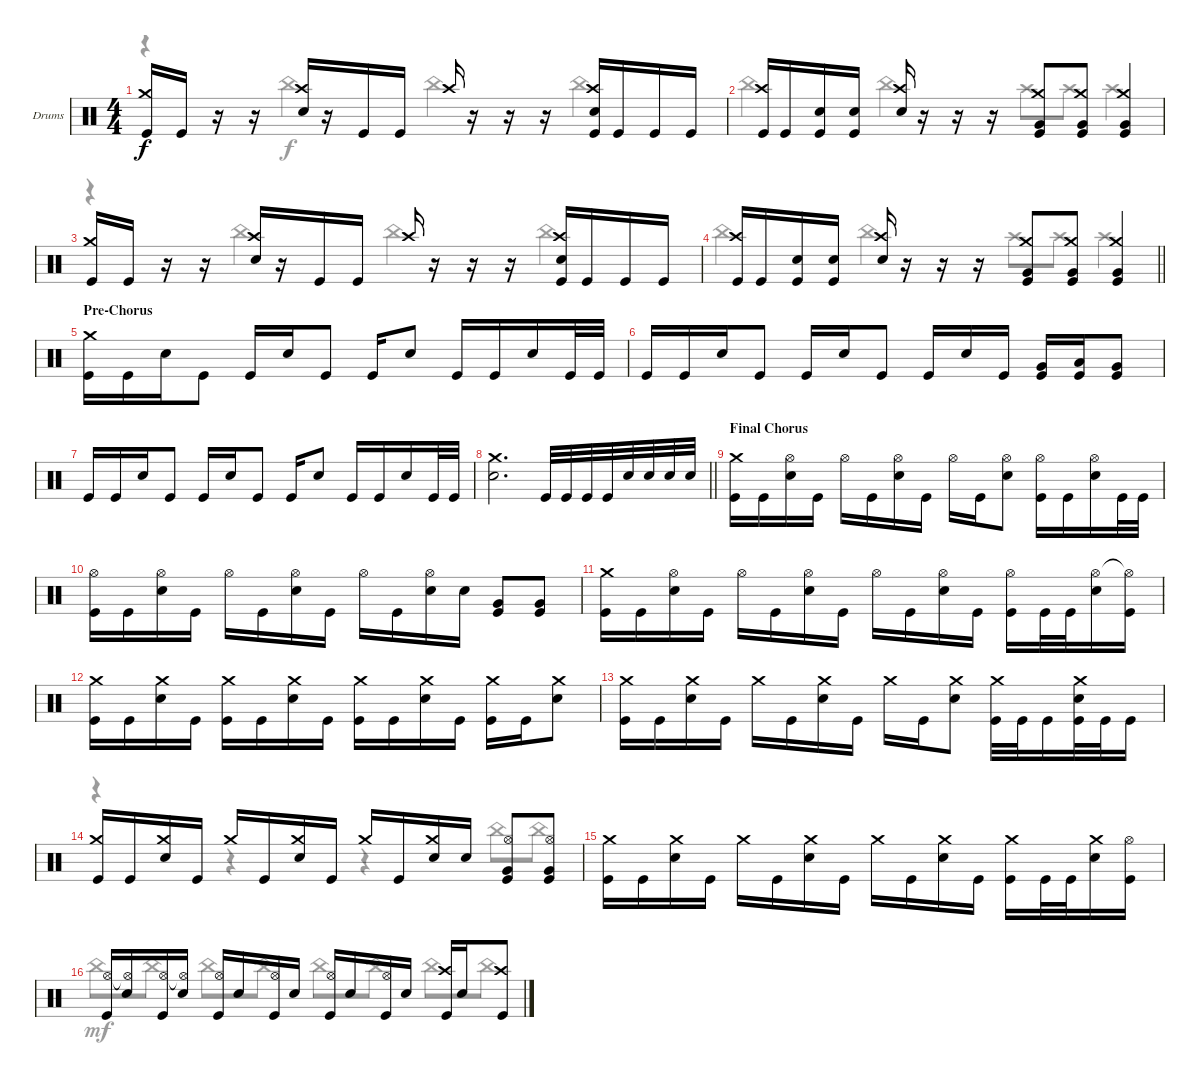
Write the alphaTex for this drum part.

\bracketExtendMode groupsimilarinstruments
\firstSystemTrackNameOrientation horizontal
\otherSystemsTrackNameOrientation horizontal
\track ("Drumkit" "Drums") {instrument percussion}
\staff {score}
\articulation defaults
\voice
\ts (4 4)
\tempo (94 hide)
\clef neutral
\ks c
("Crash medium (hit)" "Kick (hit)").16{dy f} "Kick (hit)".16 r.16 r.16 ("Crash high (hit)" "Snare (hit) 2").16 r.16 "Kick (hit)".16 "Kick (hit)".16 "Crash high (hit)".16 r.16 r.16 r.16 ("Crash high (hit)" "Snare (hit) 2" "Kick (hit)").16 "Kick (hit)".16 "Kick (hit)".16 "Kick (hit)".16 |
("Crash high (hit)" "Kick (hit)").16 "Kick (hit)".16 ("Snare (hit) 2" "Kick (hit)").16 ("Snare (hit) 2" "Kick (hit)").16 ("Crash high (hit)" "Snare (hit) 2").16 r.16 r.16 r.16 ("Crash medium (hit)" "Very Low Tom (hit)" "Kick (hit)").8 ("Crash medium (hit)" "Very Low Tom (hit)" "Kick (hit)").8 ("Crash medium (hit)" "Very Low Tom (hit)" "Kick (hit)").4 |
("Crash medium (hit)" "Kick (hit)").16 "Kick (hit)".16 r.16 r.16 ("Crash high (hit)" "Snare (hit) 2").16 r.16 "Kick (hit)".16 "Kick (hit)".16 "Crash high (hit)".16 r.16 r.16 r.16 ("Crash high (hit)" "Snare (hit) 2" "Kick (hit)").16 "Kick (hit)".16 "Kick (hit)".16 "Kick (hit)".16 |
\barLineRight lightlight
("Crash high (hit)" "Kick (hit)").16 "Kick (hit)".16 ("Snare (hit) 2" "Kick (hit)").16 ("Snare (hit) 2" "Kick (hit)").16 ("Crash high (hit)" "Snare (hit) 2").16 r.16 r.16 r.16 ("Crash medium (hit)" "Very Low Tom (hit)" "Kick (hit)").8 ("Crash medium (hit)" "Very Low Tom (hit)" "Kick (hit)").8 ("Crash medium (hit)" "Very Low Tom (hit)" "Kick (hit)").4 |
\section ("" "Pre-Chorus")
\tempo (94 hide)
("Crash medium (hit)" "Kick (hit)").16 "Kick (hit)".16 "Snare (hit) 2".16 "Kick (hit)".8 "Kick (hit)".16 "Snare (hit) 2".16 "Kick (hit)".8 "Kick (hit)".16 "Snare (hit) 2".8 "Kick (hit)".16 "Kick (hit)".16 "Snare (hit) 2".16 "Kick (hit)".32 "Kick (hit)".32 |
"Kick (hit)".16 "Kick (hit)".16 "Snare (hit) 2".16 "Kick (hit)".8 "Kick (hit)".16 "Snare (hit) 2".16 "Kick (hit)".8 "Kick (hit)".16 "Snare (hit) 2".16 "Kick (hit)".16 ("Very Low Tom (hit)" "Kick (hit)").16 ("Low Tom (hit)" "Kick (hit)").16 ("Very Low Tom (hit)" "Kick (hit)").8 |
"Kick (hit)".16 "Kick (hit)".16 "Snare (hit) 2".16 "Kick (hit)".8 "Kick (hit)".16 "Snare (hit) 2".16 "Kick (hit)".8 "Kick (hit)".16 "Snare (hit) 2".8 "Kick (hit)".16 "Kick (hit)".16 "Snare (hit) 2".16 "Kick (hit)".32 "Kick (hit)".32 |
\barLineRight lightlight
("Crash medium (hit)" "Snare (hit) 2").2{d} "Kick (hit)".32 "Kick (hit)".32 "Kick (hit)".32 "Kick (hit)".32 "Snare (hit) 2".32 "Snare (hit) 2".32 "Snare (hit) 2".32 "Snare (hit) 2".32 |
\section ("" "Final Chorus")
("Crash medium (hit)" "Kick (hit)").16 "Kick (hit)".16 ("Hi-Hat (open)" "Snare (hit) 2").16 "Kick (hit)".16 "Hi-Hat (open)".16 "Kick (hit)".16 ("Hi-Hat (open)" "Snare (hit) 2").16 "Kick (hit)".16 "Hi-Hat (open)".16 "Kick (hit)".16 ("Hi-Hat (open)" "Snare (hit) 2").8 ("Hi-Hat (open)" "Kick (hit)").16 "Kick (hit)".16 ("Hi-Hat (open)" "Snare (hit) 2").16 "Kick (hit)".32 "Kick (hit)".32 |
("Hi-Hat (open)" "Kick (hit)").16 "Kick (hit)".16 ("Hi-Hat (open)" "Snare (hit) 2").16 "Kick (hit)".16 "Hi-Hat (open)".16 "Kick (hit)".16 ("Hi-Hat (open)" "Snare (hit) 2").16 "Kick (hit)".16 "Hi-Hat (open)".16 "Kick (hit)".16 ("Hi-Hat (open)" "Snare (hit) 2").16 "Snare (hit) 2".16 ("Very Low Tom (hit)" "Kick (hit)").8 ("Very Low Tom (hit)" "Kick (hit)").8 |
("Crash medium (hit)" "Kick (hit)").16 "Kick (hit)".16 ("Hi-Hat (open)" "Snare (hit) 2").16 "Kick (hit)".16 "Hi-Hat (open)".16 "Kick (hit)".16 ("Hi-Hat (open)" "Snare (hit) 2").16 "Kick (hit)".16 "Hi-Hat (open)".16 "Kick (hit)".16 ("Hi-Hat (open)" "Snare (hit) 2").16 "Kick (hit)".16 ("Hi-Hat (open)" "Kick (hit)").16 "Kick (hit)".32 "Kick (hit)".32 ("Hi-Hat (open)" "Snare (hit) 2").16 ("Hi-Hat (open)"{t} "Kick (hit)").16 |
("Crash medium (hit)" "Kick (hit)").16 "Kick (hit)".16 ("Crash medium (hit)" "Snare (hit) 2").16 "Kick (hit)".16 ("Crash medium (hit)" "Kick (hit)").16 "Kick (hit)".16 ("Crash medium (hit)" "Snare (hit) 2").16 "Kick (hit)".16 ("Crash medium (hit)" "Kick (hit)").16 "Kick (hit)".16 ("Crash medium (hit)" "Snare (hit) 2").16 "Kick (hit)".16 ("Crash medium (hit)" "Kick (hit)").16 "Kick (hit)".16 ("Crash medium (hit)" "Snare (hit) 2").8 |
("Crash medium (hit)" "Kick (hit)").16 "Kick (hit)".16 ("Crash medium (hit)" "Snare (hit) 2").16 "Kick (hit)".16 "Crash medium (hit)".16 "Kick (hit)".16 ("Crash medium (hit)" "Snare (hit) 2").16 "Kick (hit)".16 "Crash medium (hit)".16 "Kick (hit)".16 ("Crash medium (hit)" "Snare (hit) 2").8 ("Crash medium (hit)" "Kick (hit)").32 "Kick (hit)".32 "Kick (hit)".16 ("Crash medium (hit)" "Snare (hit) 2" "Kick (hit)").32 "Kick (hit)".32 "Kick (hit)".16 |
("Crash medium (hit)" "Kick (hit)").16 "Kick (hit)".16 ("Crash medium (hit)" "Snare (hit) 2").16 "Kick (hit)".16 "Crash medium (hit)".16 "Kick (hit)".16 ("Crash medium (hit)" "Snare (hit) 2").16 "Kick (hit)".16 "Crash medium (hit)".16 "Kick (hit)".16 ("Crash medium (hit)" "Snare (hit) 2").16 "Snare (hit) 2".16 ("Hi-Hat (open)" "Very Low Tom (hit)" "Kick (hit)").8 ("Hi-Hat (open)" "Very Low Tom (hit)" "Kick (hit)").8 |
("Crash medium (hit)" "Kick (hit)").16 "Kick (hit)".16 ("Crash medium (hit)" "Snare (hit) 2").16 "Kick (hit)".16 "Crash medium (hit)".16 "Kick (hit)".16 ("Crash medium (hit)" "Snare (hit) 2").16 "Kick (hit)".16 "Crash medium (hit)".16 "Kick (hit)".16 ("Crash medium (hit)" "Snare (hit) 2").16 "Kick (hit)".16 ("Crash medium (hit)" "Kick (hit)").16 "Kick (hit)".32 "Kick (hit)".32 ("Crash medium (hit)" "Snare (hit) 2").16 ("Hi-Hat (open)" "Kick (hit)").16 |
("Hi-Hat (open)" "Kick (hit)").16 ("Hi-Hat (open)"{t} "Snare (hit) 2").16 ("Hi-Hat (open)" "Kick (hit)").16 ("Hi-Hat (open)"{t} "Snare (hit) 2").16 ("Hi-Hat (open)" "Kick (hit)").16 "Snare (hit) 2".16 ("Hi-Hat (open)" "Kick (hit)").16 "Snare (hit) 2".16 ("Hi-Hat (open)" "Kick (hit)").16 "Snare (hit) 2".16 ("Hi-Hat (open)" "Kick (hit)").16 "Snare (hit) 2".16 ("Crash high (hit)" "Kick (hit)").16 "Snare (hit) 2".16 ("Crash high (hit)" "Kick (hit)").8
\voice
\clef neutral
\ottava regular
\simile none
\ks c
r.4{dy mf} "China (hit)".4{dy f} "China (hit)".4 "China (hit)".4 |
"China (hit)".4 "China (hit)".4 "Crash high (hit)".8 "Crash high (hit)".8 "Crash high (hit)".4 |
r.4 "China (hit)".4 "China (hit)".4 "China (hit)".4 |
\barLineRight lightlight "China (hit)".4 "China (hit)".4 "Crash high (hit)".8 "Crash high (hit)".8 "Crash high (hit)".4
|
|
|
|
\barLineRight lightlight
|
|
|
|
|
|
r.4 r.4 r.4 "China (hit)".8 "China (hit)".8 |
|
"China (hit)".8{dy mf} "China (hit)".8 "China (hit)".8 "China (hit)".8 "China (hit)".8 "China (hit)".8 "China (hit)".8 "China (hit)".8
